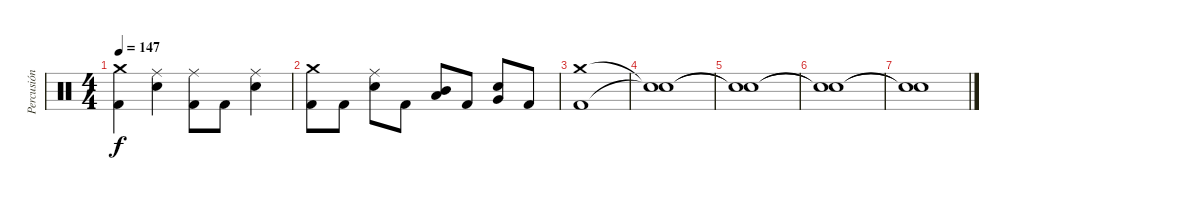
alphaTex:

\track ("Percusión" "Percusión") {instrument percussion}
\staff {score}
\articulation defaults
\ts (4 4)
\tempo 147
\clef neutral
\ks c
("Crash medium (hit)" "Kick (hit) 2").4{dy f} ("Ride (middle)" "Snare (hit) 2").4 ("Ride (middle)" "Kick (hit) 2").8 "Kick (hit) 2".8 ("Ride (middle)" "Snare (hit) 2").4 |
("Crash medium (hit)" "Kick (hit) 2").8 "Kick (hit) 2".8 ("Ride (middle)" "Snare (hit) 2").8 "Kick (hit) 2".8 ("Low Tom (hit)" "Mid Tom (hit)").8 "Kick (hit) 2".8 ("Very Low Tom (hit)" "Snare (hit) 2").8 "Kick (hit) 2".8 |
("Crash medium (hit)" "Kick (hit) 2").1 |
("Snare (hit)"{t} "Snare (hit)"{t}).1 |
("Snare (hit)"{t} "Snare (hit)"{t}).1 |
("Snare (hit)"{t} "Snare (hit)"{t}).1 |
("Snare (hit)"{t} "Snare (hit)"{t}).1
